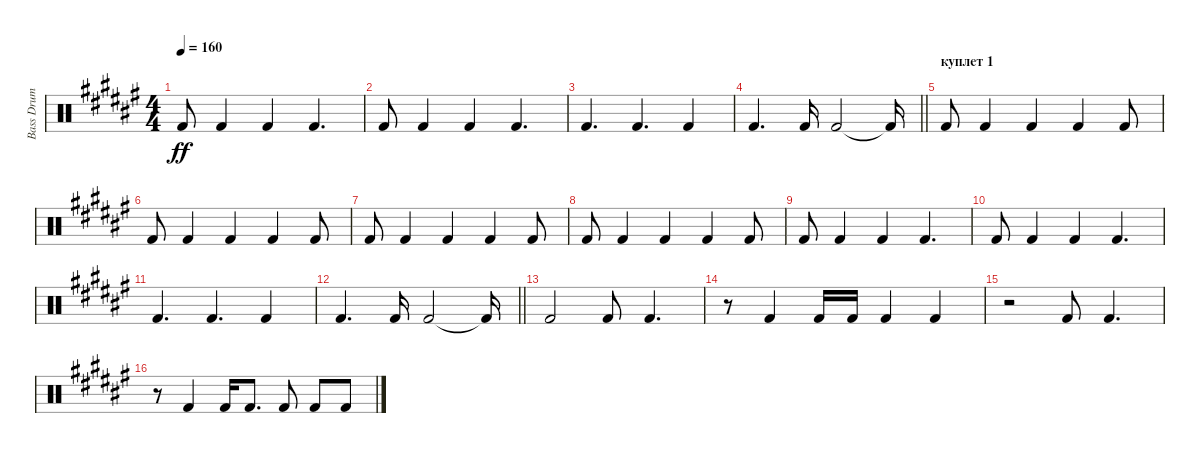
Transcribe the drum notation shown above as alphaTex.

\track ("Bass Drum" "Bass Drum") {instrument percussion}
\staff {score}
\articulation defaults
\ts (4 4)
\tempo 160
\clef neutral
\ks d#minor "Kick (hit) 2".8{dy ff} "Kick (hit) 2".4 "Kick (hit) 2".4 "Kick (hit) 2".4{d}
|
"Kick (hit) 2".8 "Kick (hit) 2".4 "Kick (hit) 2".4 "Kick (hit) 2".4{d} |
"Kick (hit) 2".4{d} "Kick (hit) 2".4{d} "Kick (hit) 2".4 |
\barLineRight lightlight "Kick (hit) 2".4{d} "Kick (hit) 2".16 "Kick (hit) 2".2 "Kick (hit) 2"{t}.16
|
\section ("" "куплет 1")
"Kick (hit) 2".8 "Kick (hit) 2".4 "Kick (hit) 2".4 "Kick (hit) 2".4 "Kick (hit) 2".8 |
"Kick (hit) 2".8 "Kick (hit) 2".4 "Kick (hit) 2".4 "Kick (hit) 2".4 "Kick (hit) 2".8 |
"Kick (hit) 2".8 "Kick (hit) 2".4 "Kick (hit) 2".4 "Kick (hit) 2".4 "Kick (hit) 2".8 |
"Kick (hit) 2".8 "Kick (hit) 2".4 "Kick (hit) 2".4 "Kick (hit) 2".4 "Kick (hit) 2".8 |
"Kick (hit) 2".8 "Kick (hit) 2".4 "Kick (hit) 2".4 "Kick (hit) 2".4{d} |
"Kick (hit) 2".8 "Kick (hit) 2".4 "Kick (hit) 2".4 "Kick (hit) 2".4{d} |
"Kick (hit) 2".4{d} "Kick (hit) 2".4{d} "Kick (hit) 2".4 |
\barLineRight lightlight "Kick (hit) 2".4{d} "Kick (hit) 2".16 "Kick (hit) 2".2 "Kick (hit) 2"{t}.16
|
"Kick (hit) 2".2 "Kick (hit) 2".8 "Kick (hit) 2".4{d} |
r.8 "Kick (hit) 2".4 "Kick (hit) 2".16 "Kick (hit) 2".16 "Kick (hit) 2".4 "Kick (hit) 2".4 |
r.2 "Kick (hit) 2".8 "Kick (hit) 2".4{d} |
r.8 "Kick (hit) 2".4 "Kick (hit) 2".16 "Kick (hit) 2".8{d} "Kick (hit) 2".8 "Kick (hit) 2".8 "Kick (hit) 2".8
